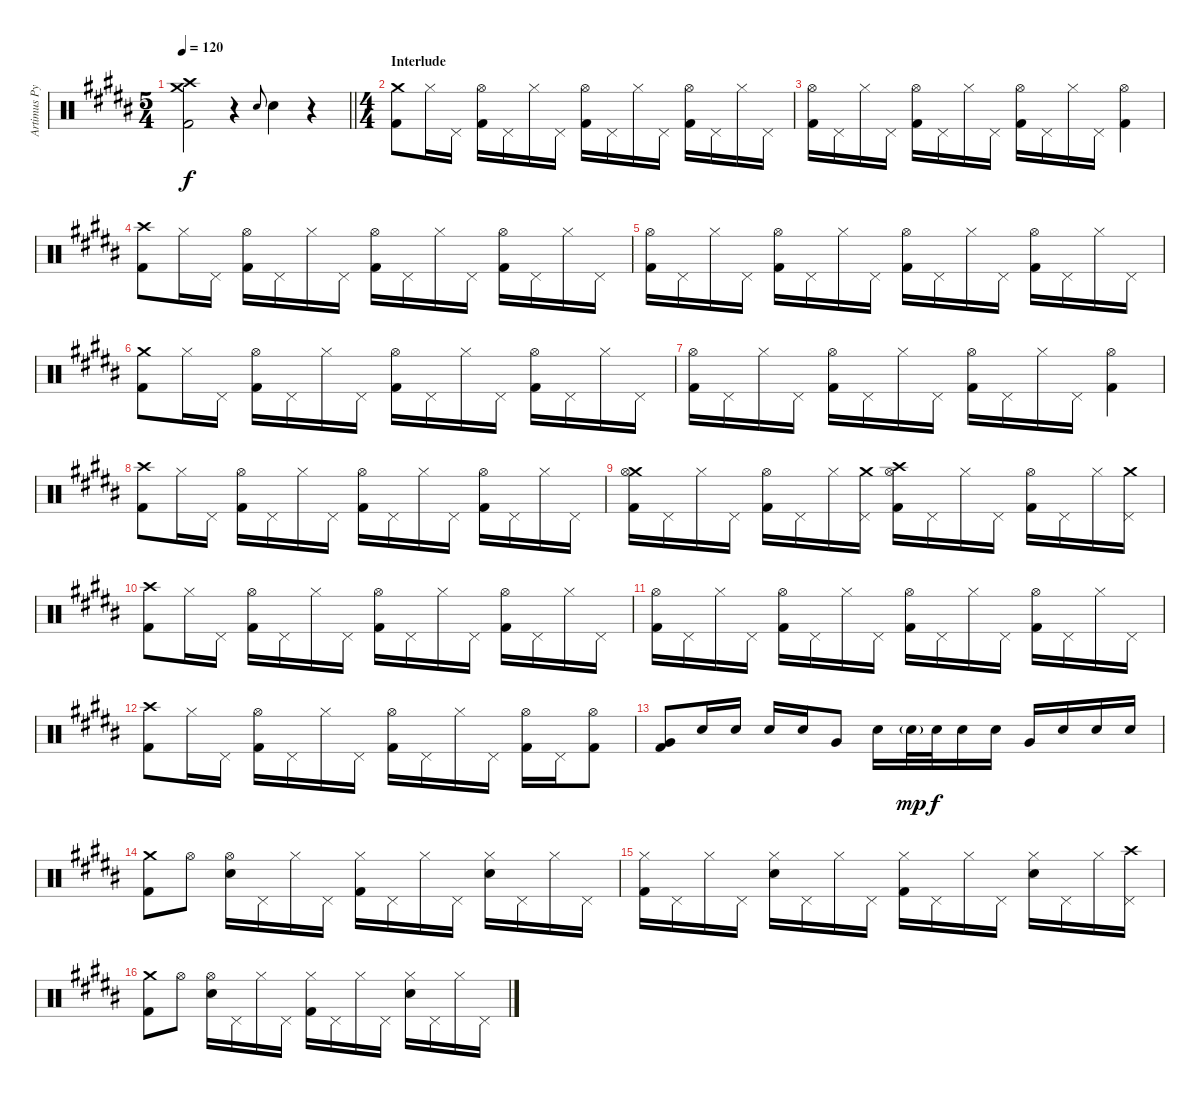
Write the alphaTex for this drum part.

\track ("Artimus Pyle - Drums" "Artimus Py") {instrument percussion}
\staff {score}
\articulation defaults
\ts (5 4)
\tempo 120
\clef neutral
\barLineRight lightlight
\ks b
("Crash high (hit)" "Crash medium (hit)" "Kick (hit) 2").2{dy f} r.4 "Snare (hit) 2".8{gr onbeat} "Snare (hit) 2".4 r.4 |
\ts (4 4)
\section ("" "Interlude")
("Crash medium (hit)" "Kick (hit) 2").8 "Hi-Hat (closed)".16 "Pedal Hi-Hat (hit)".16 ("Hi-Hat (open)" "Kick (hit) 2").16 "Pedal Hi-Hat (hit)".16 "Hi-Hat (closed)".16 "Pedal Hi-Hat (hit)".16 ("Hi-Hat (open)" "Kick (hit) 2").16 "Pedal Hi-Hat (hit)".16 "Hi-Hat (closed)".16 "Pedal Hi-Hat (hit)".16 ("Hi-Hat (open)" "Kick (hit) 2").16 "Pedal Hi-Hat (hit)".16 "Hi-Hat (closed)".16 "Pedal Hi-Hat (hit)".16 |
("Hi-Hat (open)" "Kick (hit) 2").16 "Pedal Hi-Hat (hit)".16 "Hi-Hat (closed)".16 "Pedal Hi-Hat (hit)".16 ("Hi-Hat (open)" "Kick (hit) 2").16 "Pedal Hi-Hat (hit)".16 "Hi-Hat (closed)".16 "Pedal Hi-Hat (hit)".16 ("Hi-Hat (open)" "Kick (hit) 2").16 "Pedal Hi-Hat (hit)".16 "Hi-Hat (closed)".16 "Pedal Hi-Hat (hit)".16 ("Hi-Hat (open)" "Kick (hit) 2").4 |
("Crash high (hit)" "Kick (hit) 2").8 "Hi-Hat (closed)".16 "Pedal Hi-Hat (hit)".16 ("Hi-Hat (open)" "Kick (hit) 2").16 "Pedal Hi-Hat (hit)".16 "Hi-Hat (closed)".16 "Pedal Hi-Hat (hit)".16 ("Hi-Hat (open)" "Kick (hit) 2").16 "Pedal Hi-Hat (hit)".16 "Hi-Hat (closed)".16 "Pedal Hi-Hat (hit)".16 ("Hi-Hat (open)" "Kick (hit) 2").16 "Pedal Hi-Hat (hit)".16 "Hi-Hat (closed)".16 "Pedal Hi-Hat (hit)".16 |
("Hi-Hat (open)" "Kick (hit) 2").16 "Pedal Hi-Hat (hit)".16 "Hi-Hat (closed)".16 "Pedal Hi-Hat (hit)".16 ("Hi-Hat (open)" "Kick (hit) 2").16 "Pedal Hi-Hat (hit)".16 "Hi-Hat (closed)".16 "Pedal Hi-Hat (hit)".16 ("Hi-Hat (open)" "Kick (hit) 2").16 "Pedal Hi-Hat (hit)".16 "Hi-Hat (closed)".16 "Pedal Hi-Hat (hit)".16 ("Hi-Hat (open)" "Kick (hit) 2").16 "Pedal Hi-Hat (hit)".16 "Hi-Hat (closed)".16 "Pedal Hi-Hat (hit)".16 |
("Crash medium (hit)" "Kick (hit) 2").8 "Hi-Hat (closed)".16 "Pedal Hi-Hat (hit)".16 ("Hi-Hat (open)" "Kick (hit) 2").16 "Pedal Hi-Hat (hit)".16 "Hi-Hat (closed)".16 "Pedal Hi-Hat (hit)".16 ("Hi-Hat (open)" "Kick (hit) 2").16 "Pedal Hi-Hat (hit)".16 "Hi-Hat (closed)".16 "Pedal Hi-Hat (hit)".16 ("Hi-Hat (open)" "Kick (hit) 2").16 "Pedal Hi-Hat (hit)".16 "Hi-Hat (closed)".16 "Pedal Hi-Hat (hit)".16 |
("Hi-Hat (open)" "Kick (hit) 2").16 "Pedal Hi-Hat (hit)".16 "Hi-Hat (closed)".16 "Pedal Hi-Hat (hit)".16 ("Hi-Hat (open)" "Kick (hit) 2").16 "Pedal Hi-Hat (hit)".16 "Hi-Hat (closed)".16 "Pedal Hi-Hat (hit)".16 ("Hi-Hat (open)" "Kick (hit) 2").16 "Pedal Hi-Hat (hit)".16 "Hi-Hat (closed)".16 "Pedal Hi-Hat (hit)".16 ("Hi-Hat (open)" "Kick (hit) 2").4 |
("Crash high (hit)" "Kick (hit) 2").8 "Hi-Hat (closed)".16 "Pedal Hi-Hat (hit)".16 ("Hi-Hat (open)" "Kick (hit) 2").16 "Pedal Hi-Hat (hit)".16 "Hi-Hat (closed)".16 "Pedal Hi-Hat (hit)".16 ("Hi-Hat (open)" "Kick (hit) 2").16 "Pedal Hi-Hat (hit)".16 "Hi-Hat (closed)".16 "Pedal Hi-Hat (hit)".16 ("Hi-Hat (open)" "Kick (hit) 2").16 "Pedal Hi-Hat (hit)".16 "Hi-Hat (closed)".16 "Pedal Hi-Hat (hit)".16 |
("Crash medium (hit)" "Hi-Hat (open)" "Kick (hit) 2").16 "Pedal Hi-Hat (hit)".16 "Hi-Hat (closed)".16 "Pedal Hi-Hat (hit)".16 ("Hi-Hat (open)" "Kick (hit) 2").16 "Pedal Hi-Hat (hit)".16 "Hi-Hat (closed)".16 ("Crash medium (hit)" "Pedal Hi-Hat (hit)").16 ("Crash high (hit)" "Hi-Hat (open)" "Kick (hit) 2").16 "Pedal Hi-Hat (hit)".16 "Hi-Hat (closed)".16 "Pedal Hi-Hat (hit)".16 ("Hi-Hat (open)" "Kick (hit) 2").16 "Pedal Hi-Hat (hit)".16 "Hi-Hat (closed)".16 ("Crash medium (hit)" "Pedal Hi-Hat (hit)").16 |
("Crash high (hit)" "Kick (hit) 2").8 "Hi-Hat (closed)".16 "Pedal Hi-Hat (hit)".16 ("Hi-Hat (open)" "Kick (hit) 2").16 "Pedal Hi-Hat (hit)".16 "Hi-Hat (closed)".16 "Pedal Hi-Hat (hit)".16 ("Hi-Hat (open)" "Kick (hit) 2").16 "Pedal Hi-Hat (hit)".16 "Hi-Hat (closed)".16 "Pedal Hi-Hat (hit)".16 ("Hi-Hat (open)" "Kick (hit) 2").16 "Pedal Hi-Hat (hit)".16 "Hi-Hat (closed)".16 "Pedal Hi-Hat (hit)".16 |
("Hi-Hat (open)" "Kick (hit) 2").16 "Pedal Hi-Hat (hit)".16 "Hi-Hat (closed)".16 "Pedal Hi-Hat (hit)".16 ("Hi-Hat (open)" "Kick (hit) 2").16 "Pedal Hi-Hat (hit)".16 "Hi-Hat (closed)".16 "Pedal Hi-Hat (hit)".16 ("Hi-Hat (open)" "Kick (hit) 2").16 "Pedal Hi-Hat (hit)".16 "Hi-Hat (closed)".16 "Pedal Hi-Hat (hit)".16 ("Hi-Hat (open)" "Kick (hit) 2").16 "Pedal Hi-Hat (hit)".16 "Hi-Hat (closed)".16 "Pedal Hi-Hat (hit)".16 |
("Crash high (hit)" "Kick (hit) 2").8 "Hi-Hat (closed)".16 "Pedal Hi-Hat (hit)".16 ("Hi-Hat (open)" "Kick (hit) 2").16 "Pedal Hi-Hat (hit)".16 "Hi-Hat (closed)".16 "Pedal Hi-Hat (hit)".16 ("Hi-Hat (open)" "Kick (hit) 2").16 "Pedal Hi-Hat (hit)".16 "Hi-Hat (closed)".16 "Pedal Hi-Hat (hit)".16 ("Hi-Hat (open)" "Kick (hit) 2").16 "Pedal Hi-Hat (hit)".16 ("Hi-Hat (open)" "Kick (hit) 2").8 |
("Very Low Tom (hit)" "Kick (hit) 2").8 "Snare (hit) 2".16 "Snare (hit) 2".16 "Snare (hit) 2".16 "Snare (hit) 2".16 "Very Low Tom (hit)".8 "Snare (hit) 2".16 "Snare (hit) 2"{g}.32{dy mp} "Snare (hit) 2".32{dy f} "Snare (hit) 2".16 "Snare (hit) 2".16 "Very Low Tom (hit)".16 "Snare (hit) 2".16 "Snare (hit) 2".16 "Snare (hit) 2".16 |
("Crash medium (hit)" "Kick (hit) 2").8 "Hi-Hat (open)".8 ("Snare (hit) 2" "Hi-Hat (open)").16 "Pedal Hi-Hat (hit)".16 "Hi-Hat (closed)".16 "Pedal Hi-Hat (hit)".16 ("Hi-Hat (closed)" "Kick (hit) 2").16 "Pedal Hi-Hat (hit)".16 "Hi-Hat (closed)".16 "Pedal Hi-Hat (hit)".16 ("Snare (hit) 2" "Hi-Hat (closed)").16 "Pedal Hi-Hat (hit)".16 "Hi-Hat (closed)".16 "Pedal Hi-Hat (hit)".16 |
("Hi-Hat (closed)" "Kick (hit) 2").16 "Pedal Hi-Hat (hit)".16 "Hi-Hat (closed)".16 "Pedal Hi-Hat (hit)".16 ("Snare (hit) 2" "Hi-Hat (closed)").16 "Pedal Hi-Hat (hit)".16 "Hi-Hat (closed)".16 "Pedal Hi-Hat (hit)".16 ("Hi-Hat (closed)" "Kick (hit) 2").16 "Pedal Hi-Hat (hit)".16 "Hi-Hat (closed)".16 "Pedal Hi-Hat (hit)".16 ("Snare (hit) 2" "Hi-Hat (closed)").16 "Pedal Hi-Hat (hit)".16 "Hi-Hat (closed)".16 ("Crash high (hit)" "Pedal Hi-Hat (hit)").16 |
("Crash medium (hit)" "Kick (hit) 2").8 "Hi-Hat (open)".8 ("Snare (hit) 2" "Hi-Hat (open)").16 "Pedal Hi-Hat (hit)".16 "Hi-Hat (closed)".16 "Pedal Hi-Hat (hit)".16 ("Hi-Hat (closed)" "Kick (hit) 2").16 "Pedal Hi-Hat (hit)".16 "Hi-Hat (closed)".16 "Pedal Hi-Hat (hit)".16 ("Snare (hit) 2" "Hi-Hat (closed)").16 "Pedal Hi-Hat (hit)".16 "Hi-Hat (closed)".16 "Pedal Hi-Hat (hit)".16
